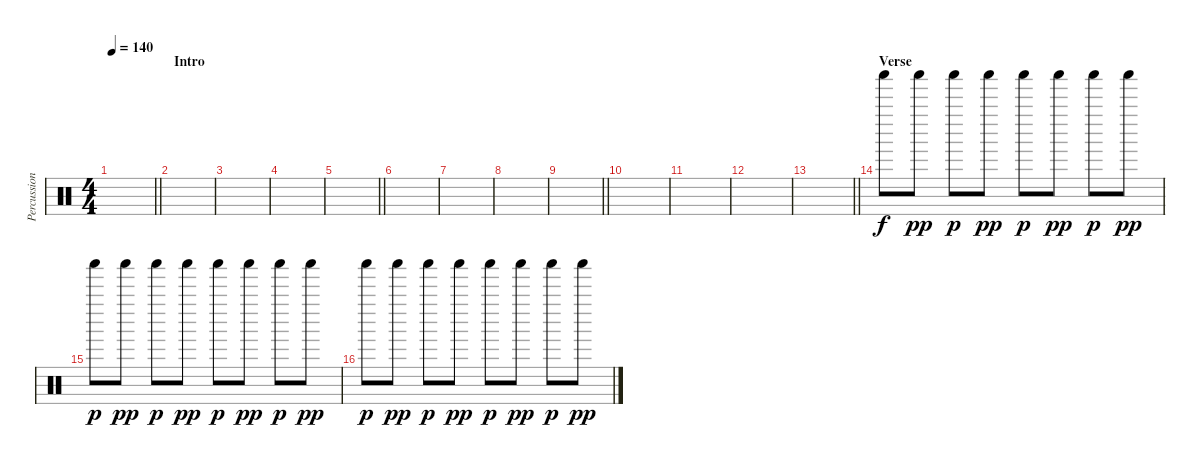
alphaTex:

\track ("Percussion" "Percussion") {instrument percussion}
\staff {score}
\articulation defaults
\ts (4 4)
\tempo 140
\clef neutral
\barLineRight lightlight
\ks c
|
\section ("" "Intro")
|
|
|
\barLineRight lightlight
|
|
|
|
\barLineRight lightlight
|
|
|
|
\barLineRight lightlight
|
\section ("" "Verse")
"Shaker (hit)".8 "Shaker (hit)".8{dy pp} "Shaker (hit)".8{dy p} "Shaker (hit)".8{dy pp} "Shaker (hit)".8{dy p} "Shaker (hit)".8{dy pp} "Shaker (hit)".8{dy p} "Shaker (hit)".8{dy pp} |
"Shaker (hit)".8{dy p} "Shaker (hit)".8{dy pp} "Shaker (hit)".8{dy p} "Shaker (hit)".8{dy pp} "Shaker (hit)".8{dy p} "Shaker (hit)".8{dy pp} "Shaker (hit)".8{dy p} "Shaker (hit)".8{dy pp} |
"Shaker (hit)".8{dy p} "Shaker (hit)".8{dy pp} "Shaker (hit)".8{dy p} "Shaker (hit)".8{dy pp} "Shaker (hit)".8{dy p} "Shaker (hit)".8{dy pp} "Shaker (hit)".8{dy p} "Shaker (hit)".8{dy pp}
